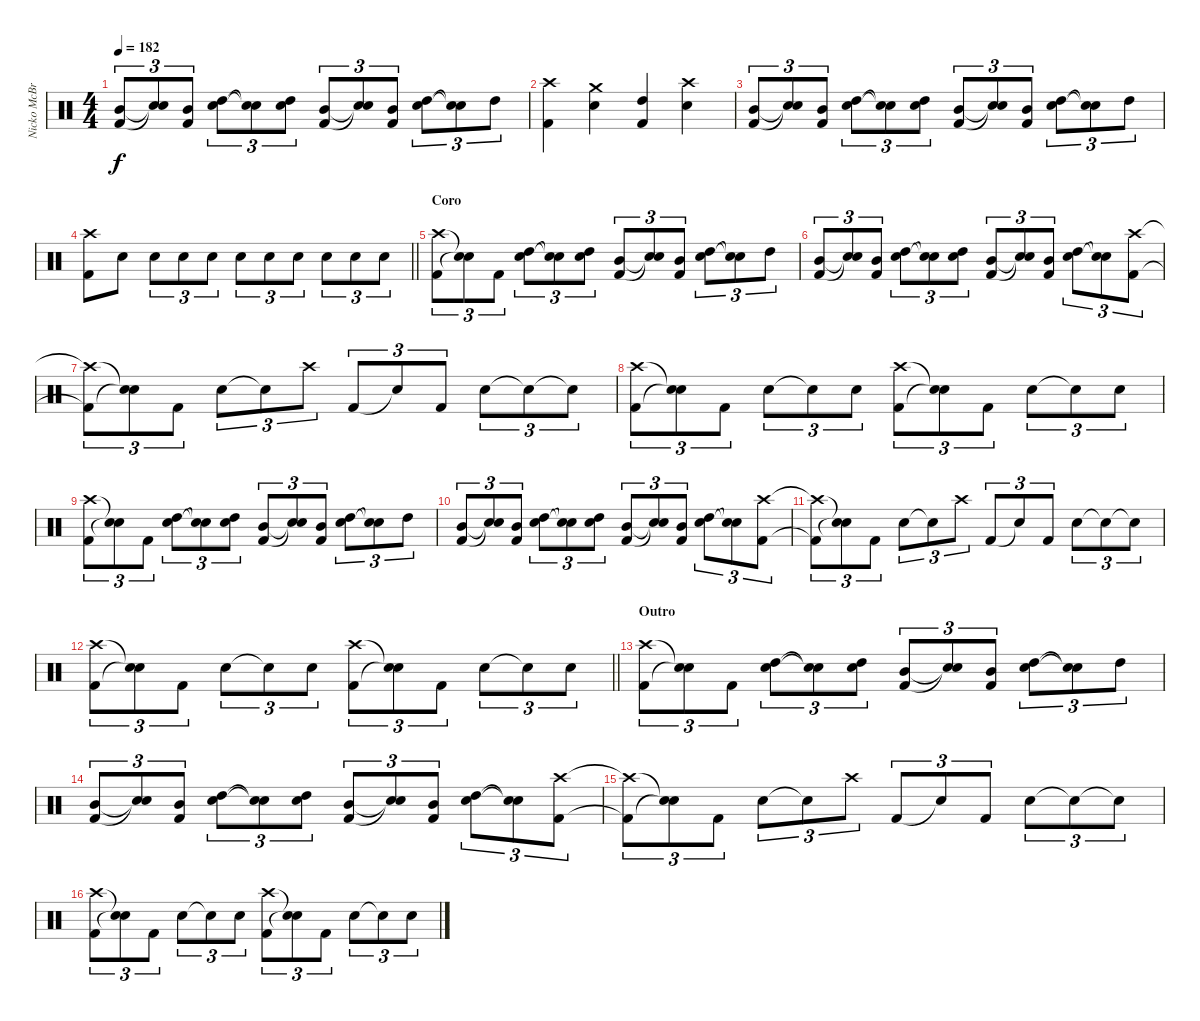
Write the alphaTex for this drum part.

\track ("Nicko McBrain" "Nicko McBr") {instrument percussion}
\staff {score}
\articulation defaults
\ts (4 4)
\tempo 182
\clef neutral
\ks c
("Mid Tom (hit)" "Kick (hit) 2").8{tu (3 2) dy f} ("Snare (hit)"{t} "Snare (hit)"{t}).8{tu (3 2)} ("Mid Tom (hit)" "Kick (hit) 2").8{tu (3 2)} ("High Tom (hit)" "Snare (hit) 2").8{tu (3 2)} ("Snare (hit)"{t} "Snare (hit)"{t}).8{tu (3 2)} ("High Tom (hit)" "Snare (hit) 2").8{tu (3 2)} ("Mid Tom (hit)" "Kick (hit) 2").8{tu (3 2)} ("Snare (hit)"{t} "Snare (hit)"{t}).8{tu (3 2)} ("Mid Tom (hit)" "Kick (hit) 2").8{tu (3 2)} ("High Tom (hit)" "Snare (hit) 2").8{tu (3 2)} ("Snare (hit)"{t} "Snare (hit)"{t}).8{tu (3 2)} "High Tom (hit)".8{tu (3 2)} |
("Kick (hit) 2" "Crash high (hit)").4 ("Snare (hit) 2" "Crash medium (hit)").4 ("High Tom (hit)" "Kick (hit) 2").4 ("Snare (hit) 2" "Crash high (hit)").4 |
("Mid Tom (hit)" "Kick (hit) 2").8{tu (3 2)} ("Snare (hit)"{t} "Snare (hit)"{t}).8{tu (3 2)} ("Mid Tom (hit)" "Kick (hit) 2").8{tu (3 2)} ("High Tom (hit)" "Snare (hit) 2").8{tu (3 2)} ("Snare (hit)"{t} "Snare (hit)"{t}).8{tu (3 2)} ("High Tom (hit)" "Snare (hit) 2").8{tu (3 2)} ("Mid Tom (hit)" "Kick (hit) 2").8{tu (3 2)} ("Snare (hit)"{t} "Snare (hit)"{t}).8{tu (3 2)} ("Mid Tom (hit)" "Kick (hit) 2").8{tu (3 2)} ("High Tom (hit)" "Snare (hit) 2").8{tu (3 2)} ("Snare (hit)"{t} "Snare (hit)"{t}).8{tu (3 2)} "High Tom (hit)".8{tu (3 2)} |
\barLineRight lightlight
("Kick (hit) 2" "Crash high (hit)").8 "Snare (hit) 2".8 "Snare (hit) 2".8{tu (3 2)} "Snare (hit) 2".8{tu (3 2)} "Snare (hit) 2".8{tu (3 2)} "Snare (hit) 2".8{tu (3 2)} "Snare (hit) 2".8{tu (3 2)} "Snare (hit) 2".8{tu (3 2)} "Snare (hit) 2".8{tu (3 2)} "Snare (hit) 2".8{tu (3 2)} "Snare (hit) 2".8{tu (3 2)} |
\section ("" "Coro")
("Kick (hit) 2" "Crash high (hit)").8{tu (3 2)} ("Snare (hit)"{t} "Snare (hit)"{t}).8{tu (3 2)} "Kick (hit) 2".8{tu (3 2)} ("High Tom (hit)" "Snare (hit) 2").8{tu (3 2)} ("Snare (hit)"{t} "Snare (hit)"{t}).8{tu (3 2)} ("High Tom (hit)" "Snare (hit) 2").8{tu (3 2)} ("Mid Tom (hit)" "Kick (hit) 2").8{tu (3 2)} ("Snare (hit)"{t} "Snare (hit)"{t}).8{tu (3 2)} ("Mid Tom (hit)" "Kick (hit) 2").8{tu (3 2)} ("High Tom (hit)" "Snare (hit) 2").8{tu (3 2)} ("Snare (hit)"{t} "Snare (hit)"{t}).8{tu (3 2)} "High Tom (hit)".8{tu (3 2)} |
("Mid Tom (hit)" "Kick (hit) 2").8{tu (3 2)} ("Snare (hit)"{t} "Snare (hit)"{t}).8{tu (3 2)} ("Mid Tom (hit)" "Kick (hit) 2").8{tu (3 2)} ("High Tom (hit)" "Snare (hit) 2").8{tu (3 2)} ("Snare (hit)"{t} "Snare (hit)"{t}).8{tu (3 2)} ("High Tom (hit)" "Snare (hit) 2").8{tu (3 2)} ("Mid Tom (hit)" "Kick (hit) 2").8{tu (3 2)} ("Snare (hit)"{t} "Snare (hit)"{t}).8{tu (3 2)} ("Mid Tom (hit)" "Kick (hit) 2").8{tu (3 2)} ("High Tom (hit)" "Snare (hit) 2").8{tu (3 2)} ("Snare (hit)"{t} "Snare (hit)"{t}).8{tu (3 2)} ("Kick (hit) 2" "Crash high (hit)").8{tu (3 2)} |
("Kick (hit) 2"{t} "Crash high (hit)"{t}).8{tu (3 2)} ("Snare (hit)"{t} "Snare (hit)"{t}).8{tu (3 2)} "Kick (hit) 2".8{tu (3 2)} "Snare (hit) 2".8{tu (3 2)} "Snare (hit)"{t}.8{tu (3 2)} "Crash high (hit)".8{tu (3 2)} "Kick (hit) 2".8{tu (3 2)} "Snare (hit)"{t}.8{tu (3 2)} "Kick (hit) 2".8{tu (3 2)} "Snare (hit) 2".8{tu (3 2)} "Snare (hit)"{t}.8{tu (3 2)} "Snare (hit)"{t}.8{tu (3 2)} |
("Kick (hit) 2" "Crash high (hit)").8{tu (3 2)} ("Snare (hit)"{t} "Snare (hit)"{t}).8{tu (3 2)} "Kick (hit) 2".8{tu (3 2)} "Snare (hit) 2".8{tu (3 2)} "Snare (hit)"{t}.8{tu (3 2)} "Snare (hit) 2".8{tu (3 2)} ("Kick (hit) 2" "Crash high (hit)").8{tu (3 2)} ("Snare (hit)"{t} "Snare (hit)"{t}).8{tu (3 2)} "Kick (hit) 2".8{tu (3 2)} "Snare (hit) 2".8{tu (3 2)} "Snare (hit)"{t}.8{tu (3 2)} "Snare (hit) 2".8{tu (3 2)} |
("Kick (hit) 2" "Crash high (hit)").8{tu (3 2)} ("Snare (hit)"{t} "Snare (hit)"{t}).8{tu (3 2)} "Kick (hit) 2".8{tu (3 2)} ("High Tom (hit)" "Snare (hit) 2").8{tu (3 2)} ("Snare (hit)"{t} "Snare (hit)"{t}).8{tu (3 2)} ("High Tom (hit)" "Snare (hit) 2").8{tu (3 2)} ("Mid Tom (hit)" "Kick (hit) 2").8{tu (3 2)} ("Snare (hit)"{t} "Snare (hit)"{t}).8{tu (3 2)} ("Mid Tom (hit)" "Kick (hit) 2").8{tu (3 2)} ("High Tom (hit)" "Snare (hit) 2").8{tu (3 2)} ("Snare (hit)"{t} "Snare (hit)"{t}).8{tu (3 2)} "High Tom (hit)".8{tu (3 2)} |
("Mid Tom (hit)" "Kick (hit) 2").8{tu (3 2)} ("Snare (hit)"{t} "Snare (hit)"{t}).8{tu (3 2)} ("Mid Tom (hit)" "Kick (hit) 2").8{tu (3 2)} ("High Tom (hit)" "Snare (hit) 2").8{tu (3 2)} ("Snare (hit)"{t} "Snare (hit)"{t}).8{tu (3 2)} ("High Tom (hit)" "Snare (hit) 2").8{tu (3 2)} ("Mid Tom (hit)" "Kick (hit) 2").8{tu (3 2)} ("Snare (hit)"{t} "Snare (hit)"{t}).8{tu (3 2)} ("Mid Tom (hit)" "Kick (hit) 2").8{tu (3 2)} ("High Tom (hit)" "Snare (hit) 2").8{tu (3 2)} ("Snare (hit)"{t} "Snare (hit)"{t}).8{tu (3 2)} ("Kick (hit) 2" "Crash high (hit)").8{tu (3 2)} |
("Kick (hit) 2"{t} "Crash high (hit)"{t}).8{tu (3 2)} ("Snare (hit)"{t} "Snare (hit)"{t}).8{tu (3 2)} "Kick (hit) 2".8{tu (3 2)} "Snare (hit) 2".8{tu (3 2)} "Snare (hit)"{t}.8{tu (3 2)} "Crash high (hit)".8{tu (3 2)} "Kick (hit) 2".8{tu (3 2)} "Snare (hit)"{t}.8{tu (3 2)} "Kick (hit) 2".8{tu (3 2)} "Snare (hit) 2".8{tu (3 2)} "Snare (hit)"{t}.8{tu (3 2)} "Snare (hit)"{t}.8{tu (3 2)} |
\barLineRight lightlight
("Kick (hit) 2" "Crash high (hit)").8{tu (3 2)} ("Snare (hit)"{t} "Snare (hit)"{t}).8{tu (3 2)} "Kick (hit) 2".8{tu (3 2)} "Snare (hit) 2".8{tu (3 2)} "Snare (hit)"{t}.8{tu (3 2)} "Snare (hit) 2".8{tu (3 2)} ("Kick (hit) 2" "Crash high (hit)").8{tu (3 2)} ("Snare (hit)"{t} "Snare (hit)"{t}).8{tu (3 2)} "Kick (hit) 2".8{tu (3 2)} "Snare (hit) 2".8{tu (3 2)} "Snare (hit)"{t}.8{tu (3 2)} "Snare (hit) 2".8{tu (3 2)} |
\section ("" "Outro")
("Kick (hit) 2" "Crash high (hit)").8{tu (3 2)} ("Snare (hit)"{t} "Snare (hit)"{t}).8{tu (3 2)} "Kick (hit) 2".8{tu (3 2)} ("High Tom (hit)" "Snare (hit) 2").8{tu (3 2)} ("Snare (hit)"{t} "Snare (hit)"{t}).8{tu (3 2)} ("High Tom (hit)" "Snare (hit) 2").8{tu (3 2)} ("Mid Tom (hit)" "Kick (hit) 2").8{tu (3 2)} ("Snare (hit)"{t} "Snare (hit)"{t}).8{tu (3 2)} ("Mid Tom (hit)" "Kick (hit) 2").8{tu (3 2)} ("High Tom (hit)" "Snare (hit) 2").8{tu (3 2)} ("Snare (hit)"{t} "Snare (hit)"{t}).8{tu (3 2)} "High Tom (hit)".8{tu (3 2)} |
("Mid Tom (hit)" "Kick (hit) 2").8{tu (3 2)} ("Snare (hit)"{t} "Snare (hit)"{t}).8{tu (3 2)} ("Mid Tom (hit)" "Kick (hit) 2").8{tu (3 2)} ("High Tom (hit)" "Snare (hit) 2").8{tu (3 2)} ("Snare (hit)"{t} "Snare (hit)"{t}).8{tu (3 2)} ("High Tom (hit)" "Snare (hit) 2").8{tu (3 2)} ("Mid Tom (hit)" "Kick (hit) 2").8{tu (3 2)} ("Snare (hit)"{t} "Snare (hit)"{t}).8{tu (3 2)} ("Mid Tom (hit)" "Kick (hit) 2").8{tu (3 2)} ("High Tom (hit)" "Snare (hit) 2").8{tu (3 2)} ("Snare (hit)"{t} "Snare (hit)"{t}).8{tu (3 2)} ("Kick (hit) 2" "Crash high (hit)").8{tu (3 2)} |
("Kick (hit) 2"{t} "Crash high (hit)"{t}).8{tu (3 2)} ("Snare (hit)"{t} "Snare (hit)"{t}).8{tu (3 2)} "Kick (hit) 2".8{tu (3 2)} "Snare (hit) 2".8{tu (3 2)} "Snare (hit)"{t}.8{tu (3 2)} "Crash high (hit)".8{tu (3 2)} "Kick (hit) 2".8{tu (3 2)} "Snare (hit)"{t}.8{tu (3 2)} "Kick (hit) 2".8{tu (3 2)} "Snare (hit) 2".8{tu (3 2)} "Snare (hit)"{t}.8{tu (3 2)} "Snare (hit)"{t}.8{tu (3 2)} |
("Kick (hit) 2" "Crash high (hit)").8{tu (3 2)} ("Snare (hit)"{t} "Snare (hit)"{t}).8{tu (3 2)} "Kick (hit) 2".8{tu (3 2)} "Snare (hit) 2".8{tu (3 2)} "Snare (hit)"{t}.8{tu (3 2)} "Snare (hit) 2".8{tu (3 2)} ("Kick (hit) 2" "Crash high (hit)").8{tu (3 2)} ("Snare (hit)"{t} "Snare (hit)"{t}).8{tu (3 2)} "Kick (hit) 2".8{tu (3 2)} "Snare (hit) 2".8{tu (3 2)} "Snare (hit)"{t}.8{tu (3 2)} "Snare (hit) 2".8{tu (3 2)}
